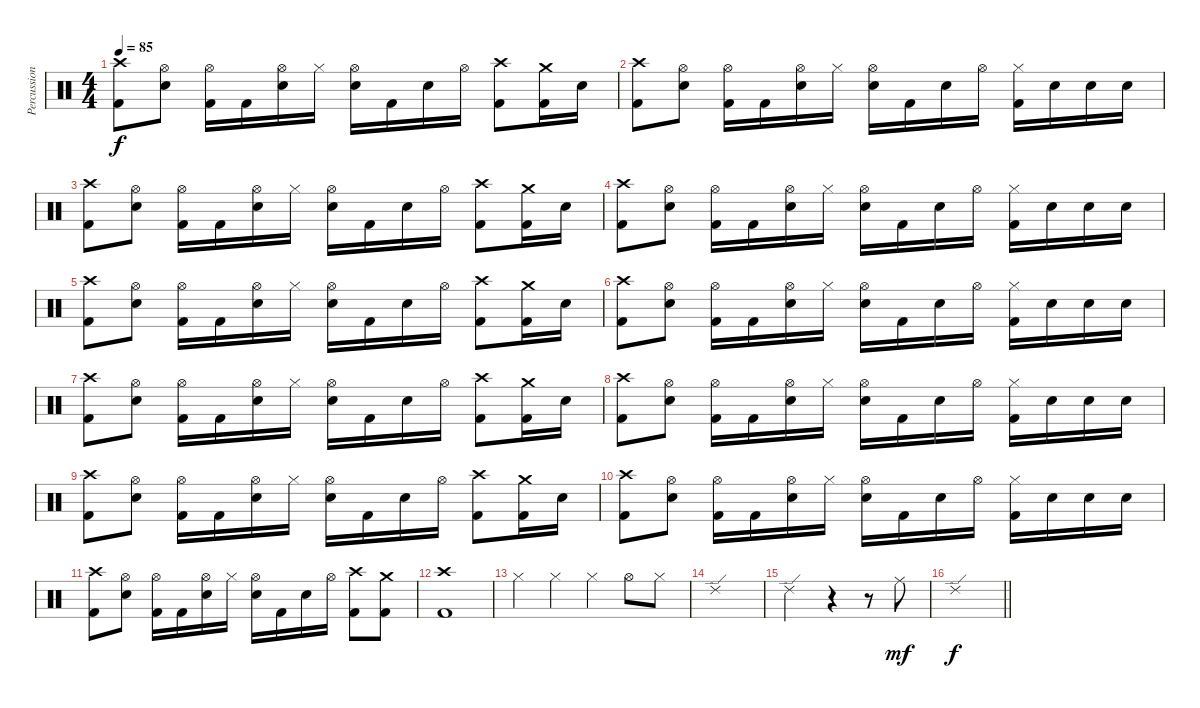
\track ("Percussion" "Percussion") {instrument percussion}
\staff {score}
\articulation defaults
\ts (4 4)
\tempo 85
\clef neutral
\ks c
("Crash high (hit)" "Kick (hit) 2").8{dy f} ("Hi-Hat (open)" "Snare (hit) 2").8 ("Hi-Hat (open)" "Kick (hit) 2").16 "Kick (hit) 2".16 ("Hi-Hat (open)" "Snare (hit) 2").16 "Hi-Hat (closed)".16 ("Hi-Hat (open)" "Snare (hit) 2").16 "Kick (hit) 2".16 "Snare (hit) 2".16 "Hi-Hat (open)".16 ("Crash high (hit)" "Kick (hit) 2").8 ("Crash medium (hit)" "Kick (hit) 2").16 "Snare (hit) 2".16 |
("Crash high (hit)" "Kick (hit) 2").8 ("Hi-Hat (open)" "Snare (hit) 2").8 ("Hi-Hat (open)" "Kick (hit) 2").16 "Kick (hit) 2".16 ("Hi-Hat (open)" "Snare (hit) 2").16 "Hi-Hat (closed)".16 ("Hi-Hat (open)" "Snare (hit) 2").16 "Kick (hit) 2".16 "Snare (hit) 2".16 "Hi-Hat (open)".16 ("Hi-Hat (closed)" "Kick (hit) 2").16 "Snare (hit) 2".16 "Snare (hit) 2".16 "Snare (hit) 2".16 |
("Crash high (hit)" "Kick (hit) 2").8 ("Hi-Hat (open)" "Snare (hit) 2").8 ("Hi-Hat (open)" "Kick (hit) 2").16 "Kick (hit) 2".16 ("Hi-Hat (open)" "Snare (hit) 2").16 "Hi-Hat (closed)".16 ("Hi-Hat (open)" "Snare (hit) 2").16 "Kick (hit) 2".16 "Snare (hit) 2".16 "Hi-Hat (open)".16 ("Crash high (hit)" "Kick (hit) 2").8 ("Crash medium (hit)" "Kick (hit) 2").16 "Snare (hit) 2".16 |
("Crash high (hit)" "Kick (hit) 2").8 ("Hi-Hat (open)" "Snare (hit) 2").8 ("Hi-Hat (open)" "Kick (hit) 2").16 "Kick (hit) 2".16 ("Hi-Hat (open)" "Snare (hit) 2").16 "Hi-Hat (closed)".16 ("Hi-Hat (open)" "Snare (hit) 2").16 "Kick (hit) 2".16 "Snare (hit) 2".16 "Hi-Hat (open)".16 ("Hi-Hat (closed)" "Kick (hit) 2").16 "Snare (hit) 2".16 "Snare (hit) 2".16 "Snare (hit) 2".16 |
("Crash high (hit)" "Kick (hit) 2").8 ("Hi-Hat (open)" "Snare (hit) 2").8 ("Hi-Hat (open)" "Kick (hit) 2").16 "Kick (hit) 2".16 ("Hi-Hat (open)" "Snare (hit) 2").16 "Hi-Hat (closed)".16 ("Hi-Hat (open)" "Snare (hit) 2").16 "Kick (hit) 2".16 "Snare (hit) 2".16 "Hi-Hat (open)".16 ("Crash high (hit)" "Kick (hit) 2").8 ("Crash medium (hit)" "Kick (hit) 2").16 "Snare (hit) 2".16 |
("Crash high (hit)" "Kick (hit) 2").8 ("Hi-Hat (open)" "Snare (hit) 2").8 ("Hi-Hat (open)" "Kick (hit) 2").16 "Kick (hit) 2".16 ("Hi-Hat (open)" "Snare (hit) 2").16 "Hi-Hat (closed)".16 ("Hi-Hat (open)" "Snare (hit) 2").16 "Kick (hit) 2".16 "Snare (hit) 2".16 "Hi-Hat (open)".16 ("Hi-Hat (closed)" "Kick (hit) 2").16 "Snare (hit) 2".16 "Snare (hit) 2".16 "Snare (hit) 2".16 |
("Crash high (hit)" "Kick (hit) 2").8 ("Hi-Hat (open)" "Snare (hit) 2").8 ("Hi-Hat (open)" "Kick (hit) 2").16 "Kick (hit) 2".16 ("Hi-Hat (open)" "Snare (hit) 2").16 "Hi-Hat (closed)".16 ("Hi-Hat (open)" "Snare (hit) 2").16 "Kick (hit) 2".16 "Snare (hit) 2".16 "Hi-Hat (open)".16 ("Crash high (hit)" "Kick (hit) 2").8 ("Crash medium (hit)" "Kick (hit) 2").16 "Snare (hit) 2".16 |
("Crash high (hit)" "Kick (hit) 2").8 ("Hi-Hat (open)" "Snare (hit) 2").8 ("Hi-Hat (open)" "Kick (hit) 2").16 "Kick (hit) 2".16 ("Hi-Hat (open)" "Snare (hit) 2").16 "Hi-Hat (closed)".16 ("Hi-Hat (open)" "Snare (hit) 2").16 "Kick (hit) 2".16 "Snare (hit) 2".16 "Hi-Hat (open)".16 ("Hi-Hat (closed)" "Kick (hit) 2").16 "Snare (hit) 2".16 "Snare (hit) 2".16 "Snare (hit) 2".16 |
("Crash high (hit)" "Kick (hit) 2").8 ("Hi-Hat (open)" "Snare (hit) 2").8 ("Hi-Hat (open)" "Kick (hit) 2").16 "Kick (hit) 2".16 ("Hi-Hat (open)" "Snare (hit) 2").16 "Hi-Hat (closed)".16 ("Hi-Hat (open)" "Snare (hit) 2").16 "Kick (hit) 2".16 "Snare (hit) 2".16 "Hi-Hat (open)".16 ("Crash high (hit)" "Kick (hit) 2").8 ("Crash medium (hit)" "Kick (hit) 2").16 "Snare (hit) 2".16 |
("Crash high (hit)" "Kick (hit) 2").8 ("Hi-Hat (open)" "Snare (hit) 2").8 ("Hi-Hat (open)" "Kick (hit) 2").16 "Kick (hit) 2".16 ("Hi-Hat (open)" "Snare (hit) 2").16 "Hi-Hat (closed)".16 ("Hi-Hat (open)" "Snare (hit) 2").16 "Kick (hit) 2".16 "Snare (hit) 2".16 "Hi-Hat (open)".16 ("Hi-Hat (closed)" "Kick (hit) 2").16 "Snare (hit) 2".16 "Snare (hit) 2".16 "Snare (hit) 2".16 |
("Crash high (hit)" "Kick (hit) 2").8 ("Hi-Hat (open)" "Snare (hit) 2").8 ("Hi-Hat (open)" "Kick (hit) 2").16 "Kick (hit) 2".16 ("Hi-Hat (open)" "Snare (hit) 2").16 "Hi-Hat (closed)".16 ("Hi-Hat (open)" "Snare (hit) 2").16 "Kick (hit) 2".16 "Snare (hit) 2".16 "Hi-Hat (open)".16 ("Crash high (hit)" "Kick (hit) 2").8 ("Crash medium (hit)" "Kick (hit) 2").8 |
("Crash high (hit)" "Kick (hit) 2").1 |
"Hi-Hat (closed)".4 "Hi-Hat (closed)".4 "Hi-Hat (closed)".4 "Hi-Hat (open)".8 "Hi-Hat (closed)".8 |
"Ride (edge) 2".1 |
"Ride (edge) 2".2 r.4 r.8 "Ride (middle)".8{dy mf} |
\barLineRight lightlight "Ride (edge) 2".1{dy f}
